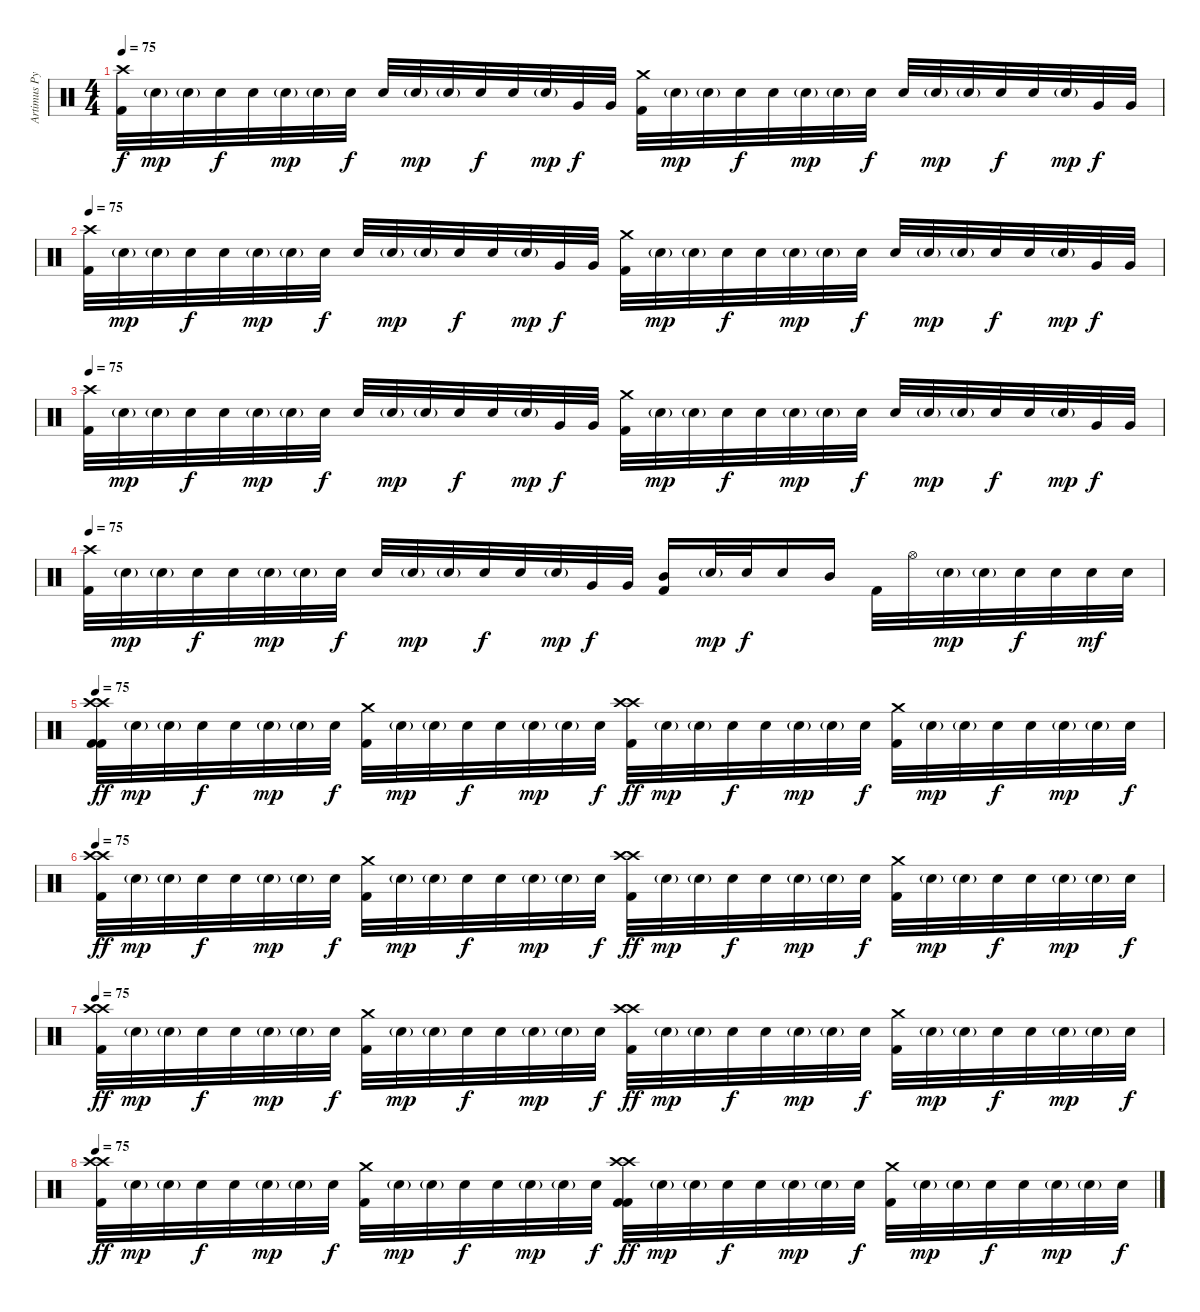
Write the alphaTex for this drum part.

\track ("Artimus Pyle (drums)" "Artimus Py") {instrument percussion}
\staff {score}
\articulation defaults
\ts (4 4)
\tempo 75
\clef neutral
\ks c
("Crash high (hit)" "Kick (hit) 2").32{dy f} "Electric Snare (hit)"{g}.32{dy mp} "Electric Snare (hit)"{g}.32 "Electric Snare (hit)".32{dy f} "Electric Snare (hit)".32 "Electric Snare (hit)"{g}.32{dy mp} "Electric Snare (hit)"{g}.32 "Electric Snare (hit)".32{dy f} "Electric Snare (hit)".32 "Electric Snare (hit)"{g}.32{dy mp} "Electric Snare (hit)"{g}.32 "Electric Snare (hit)".32{dy f} "Electric Snare (hit)".32 "Electric Snare (hit)"{g}.32{dy mp} "Very Low Tom (hit)".32{dy f} "Very Low Tom (hit)".32 ("Crash medium (hit)" "Kick (hit) 2").32 "Electric Snare (hit)"{g}.32{dy mp} "Electric Snare (hit)"{g}.32 "Electric Snare (hit)".32{dy f} "Electric Snare (hit)".32 "Electric Snare (hit)"{g}.32{dy mp} "Electric Snare (hit)"{g}.32 "Electric Snare (hit)".32{dy f} "Electric Snare (hit)".32 "Electric Snare (hit)"{g}.32{dy mp} "Electric Snare (hit)"{g}.32 "Electric Snare (hit)".32{dy f} "Electric Snare (hit)".32 "Electric Snare (hit)"{g}.32{dy mp} "Very Low Tom (hit)".32{dy f} "Very Low Tom (hit)".32 |
\tempo 75
("Crash high (hit)" "Kick (hit) 2").32 "Electric Snare (hit)"{g}.32{dy mp} "Electric Snare (hit)"{g}.32 "Electric Snare (hit)".32{dy f} "Electric Snare (hit)".32 "Electric Snare (hit)"{g}.32{dy mp} "Electric Snare (hit)"{g}.32 "Electric Snare (hit)".32{dy f} "Electric Snare (hit)".32 "Electric Snare (hit)"{g}.32{dy mp} "Electric Snare (hit)"{g}.32 "Electric Snare (hit)".32{dy f} "Electric Snare (hit)".32 "Electric Snare (hit)"{g}.32{dy mp} "Very Low Tom (hit)".32{dy f} "Very Low Tom (hit)".32 ("Crash medium (hit)" "Kick (hit) 2").32 "Electric Snare (hit)"{g}.32{dy mp} "Electric Snare (hit)"{g}.32 "Electric Snare (hit)".32{dy f} "Electric Snare (hit)".32 "Electric Snare (hit)"{g}.32{dy mp} "Electric Snare (hit)"{g}.32 "Electric Snare (hit)".32{dy f} "Electric Snare (hit)".32 "Electric Snare (hit)"{g}.32{dy mp} "Electric Snare (hit)"{g}.32 "Electric Snare (hit)".32{dy f} "Electric Snare (hit)".32 "Electric Snare (hit)"{g}.32{dy mp} "Very Low Tom (hit)".32{dy f} "Very Low Tom (hit)".32 |
\tempo 75
("Crash high (hit)" "Kick (hit) 2").32 "Electric Snare (hit)"{g}.32{dy mp} "Electric Snare (hit)"{g}.32 "Electric Snare (hit)".32{dy f} "Electric Snare (hit)".32 "Electric Snare (hit)"{g}.32{dy mp} "Electric Snare (hit)"{g}.32 "Electric Snare (hit)".32{dy f} "Electric Snare (hit)".32 "Electric Snare (hit)"{g}.32{dy mp} "Electric Snare (hit)"{g}.32 "Electric Snare (hit)".32{dy f} "Electric Snare (hit)".32 "Electric Snare (hit)"{g}.32{dy mp} "Very Low Tom (hit)".32{dy f} "Very Low Tom (hit)".32 ("Crash medium (hit)" "Kick (hit) 2").32 "Electric Snare (hit)"{g}.32{dy mp} "Electric Snare (hit)"{g}.32 "Electric Snare (hit)".32{dy f} "Electric Snare (hit)".32 "Electric Snare (hit)"{g}.32{dy mp} "Electric Snare (hit)"{g}.32 "Electric Snare (hit)".32{dy f} "Electric Snare (hit)".32 "Electric Snare (hit)"{g}.32{dy mp} "Electric Snare (hit)"{g}.32 "Electric Snare (hit)".32{dy f} "Electric Snare (hit)".32 "Electric Snare (hit)"{g}.32{dy mp} "Very Low Tom (hit)".32{dy f} "Very Low Tom (hit)".32 |
\tempo 75
("Crash high (hit)" "Kick (hit) 2").32 "Electric Snare (hit)"{g}.32{dy mp} "Electric Snare (hit)"{g}.32 "Electric Snare (hit)".32{dy f} "Electric Snare (hit)".32 "Electric Snare (hit)"{g}.32{dy mp} "Electric Snare (hit)"{g}.32 "Electric Snare (hit)".32{dy f} "Electric Snare (hit)".32 "Electric Snare (hit)"{g}.32{dy mp} "Electric Snare (hit)"{g}.32 "Electric Snare (hit)".32{dy f} "Electric Snare (hit)".32 "Electric Snare (hit)"{g}.32{dy mp} "Very Low Tom (hit)".32{dy f} "Very Low Tom (hit)".32 ("Mid Tom (hit)" "Kick (hit) 2").16 "Electric Snare (hit)"{g}.32{dy mp} "Electric Snare (hit)".32{dy f} "Electric Snare (hit)".16 "Mid Tom (hit)".16 "Kick (hit) 2".32 "Hi-Hat (open)".32 "Electric Snare (hit)"{g}.32{dy mp} "Electric Snare (hit)"{g}.32 "Electric Snare (hit)".32{dy f} "Electric Snare (hit)".32 "Electric Snare (hit)".32{dy mf} "Electric Snare (hit)".32 |
\tempo 75
("Crash high (hit)" "Crash high (hit)" "Kick (hit) 2" "Kick (hit) 2").32{dy ff} "Electric Snare (hit)"{g}.32{dy mp} "Electric Snare (hit)"{g}.32 "Electric Snare (hit)".32{dy f} "Electric Snare (hit)".32 "Electric Snare (hit)"{g}.32{dy mp} "Electric Snare (hit)"{g}.32 "Electric Snare (hit)".32{dy f} ("Crash medium (hit)" "Kick (hit) 2").32 "Electric Snare (hit)"{g}.32{dy mp} "Electric Snare (hit)"{g}.32 "Electric Snare (hit)".32{dy f} "Electric Snare (hit)".32 "Electric Snare (hit)"{g}.32{dy mp} "Electric Snare (hit)"{g}.32 "Electric Snare (hit)".32{dy f} ("Crash high (hit)" "Crash high (hit)" "Kick (hit) 2").32{dy ff} "Electric Snare (hit)"{g}.32{dy mp} "Electric Snare (hit)"{g}.32 "Electric Snare (hit)".32{dy f} "Electric Snare (hit)".32 "Electric Snare (hit)"{g}.32{dy mp} "Electric Snare (hit)"{g}.32 "Electric Snare (hit)".32{dy f} ("Crash medium (hit)" "Kick (hit) 2").32 "Electric Snare (hit)"{g}.32{dy mp} "Electric Snare (hit)"{g}.32 "Electric Snare (hit)".32{dy f} "Electric Snare (hit)".32 "Electric Snare (hit)"{g}.32{dy mp} "Electric Snare (hit)"{g}.32 "Electric Snare (hit)".32{dy f} |
\tempo 75
("Crash high (hit)" "Crash high (hit)" "Kick (hit) 2").32{dy ff} "Electric Snare (hit)"{g}.32{dy mp} "Electric Snare (hit)"{g}.32 "Electric Snare (hit)".32{dy f} "Electric Snare (hit)".32 "Electric Snare (hit)"{g}.32{dy mp} "Electric Snare (hit)"{g}.32 "Electric Snare (hit)".32{dy f} ("Crash medium (hit)" "Kick (hit) 2").32 "Electric Snare (hit)"{g}.32{dy mp} "Electric Snare (hit)"{g}.32 "Electric Snare (hit)".32{dy f} "Electric Snare (hit)".32 "Electric Snare (hit)"{g}.32{dy mp} "Electric Snare (hit)"{g}.32 "Electric Snare (hit)".32{dy f} ("Crash high (hit)" "Crash high (hit)" "Kick (hit) 2").32{dy ff} "Electric Snare (hit)"{g}.32{dy mp} "Electric Snare (hit)"{g}.32 "Electric Snare (hit)".32{dy f} "Electric Snare (hit)".32 "Electric Snare (hit)"{g}.32{dy mp} "Electric Snare (hit)"{g}.32 "Electric Snare (hit)".32{dy f} ("Crash medium (hit)" "Kick (hit) 2").32 "Electric Snare (hit)"{g}.32{dy mp} "Electric Snare (hit)"{g}.32 "Electric Snare (hit)".32{dy f} "Electric Snare (hit)".32 "Electric Snare (hit)"{g}.32{dy mp} "Electric Snare (hit)"{g}.32 "Electric Snare (hit)".32{dy f} |
\tempo 75
("Crash high (hit)" "Crash high (hit)" "Kick (hit) 2").32{dy ff} "Electric Snare (hit)"{g}.32{dy mp} "Electric Snare (hit)"{g}.32 "Electric Snare (hit)".32{dy f} "Electric Snare (hit)".32 "Electric Snare (hit)"{g}.32{dy mp} "Electric Snare (hit)"{g}.32 "Electric Snare (hit)".32{dy f} ("Crash medium (hit)" "Kick (hit) 2").32 "Electric Snare (hit)"{g}.32{dy mp} "Electric Snare (hit)"{g}.32 "Electric Snare (hit)".32{dy f} "Electric Snare (hit)".32 "Electric Snare (hit)"{g}.32{dy mp} "Electric Snare (hit)"{g}.32 "Electric Snare (hit)".32{dy f} ("Crash high (hit)" "Crash high (hit)" "Kick (hit) 2").32{dy ff} "Electric Snare (hit)"{g}.32{dy mp} "Electric Snare (hit)"{g}.32 "Electric Snare (hit)".32{dy f} "Electric Snare (hit)".32 "Electric Snare (hit)"{g}.32{dy mp} "Electric Snare (hit)"{g}.32 "Electric Snare (hit)".32{dy f} ("Crash medium (hit)" "Kick (hit) 2").32 "Electric Snare (hit)"{g}.32{dy mp} "Electric Snare (hit)"{g}.32 "Electric Snare (hit)".32{dy f} "Electric Snare (hit)".32 "Electric Snare (hit)"{g}.32{dy mp} "Electric Snare (hit)"{g}.32 "Electric Snare (hit)".32{dy f} |
\tempo 75
("Crash high (hit)" "Crash high (hit)" "Kick (hit) 2").32{dy ff} "Electric Snare (hit)"{g}.32{dy mp} "Electric Snare (hit)"{g}.32 "Electric Snare (hit)".32{dy f} "Electric Snare (hit)".32 "Electric Snare (hit)"{g}.32{dy mp} "Electric Snare (hit)"{g}.32 "Electric Snare (hit)".32{dy f} ("Crash medium (hit)" "Kick (hit) 2").32 "Electric Snare (hit)"{g}.32{dy mp} "Electric Snare (hit)"{g}.32 "Electric Snare (hit)".32{dy f} "Electric Snare (hit)".32 "Electric Snare (hit)"{g}.32{dy mp} "Electric Snare (hit)"{g}.32 "Electric Snare (hit)".32{dy f} ("Crash high (hit)" "Crash high (hit)" "Kick (hit) 2" "Kick (hit) 2").32{dy ff} "Electric Snare (hit)"{g}.32{dy mp} "Electric Snare (hit)"{g}.32 "Electric Snare (hit)".32{dy f} "Electric Snare (hit)".32 "Electric Snare (hit)"{g}.32{dy mp} "Electric Snare (hit)"{g}.32 "Electric Snare (hit)".32{dy f} ("Crash medium (hit)" "Kick (hit) 2").32 "Electric Snare (hit)"{g}.32{dy mp} "Electric Snare (hit)"{g}.32 "Electric Snare (hit)".32{dy f} "Electric Snare (hit)".32 "Electric Snare (hit)"{g}.32{dy mp} "Electric Snare (hit)"{g}.32 "Electric Snare (hit)".32{dy f}
